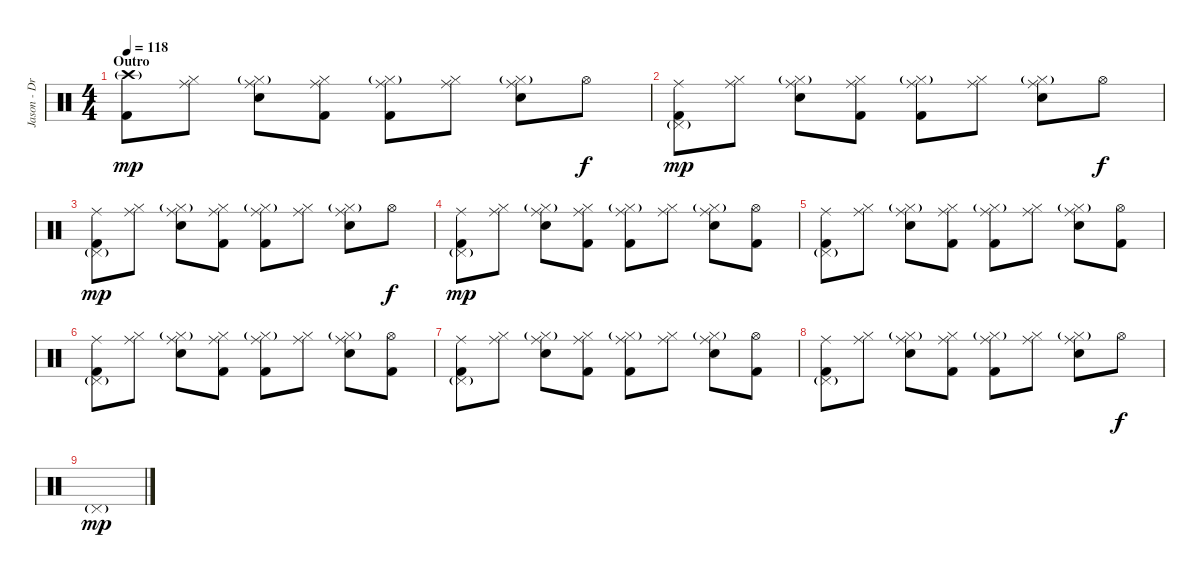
\track ("Jason - Drums" "Jason - Dr") {instrument percussion}
\staff {score}
\articulation defaults
\ts (4 4)
\section ("" "Outro")
\tempo 118
\clef neutral
\ks c
("Crash high (hit)"{g} "Kick (hit) 2").8{dy mp} ("Ride (middle)" "Hi-Hat (closed)").8 ("Ride (middle)" "Hi-Hat (closed)"{g} "Electric Snare (hit)").8 ("Ride (middle)" "Hi-Hat (closed)" "Kick (hit) 2").8 ("Ride (middle)" "Hi-Hat (closed)"{g} "Kick (hit) 2").8 ("Ride (middle)" "Hi-Hat (closed)").8 ("Ride (middle)" "Hi-Hat (closed)"{g} "Electric Snare (hit)").8 "Hi-Hat (open)".8{dy f} |
("Ride (middle)" "Pedal Hi-Hat (hit)"{g} "Kick (hit) 2").8{dy mp} ("Ride (middle)" "Hi-Hat (closed)").8 ("Ride (middle)" "Hi-Hat (closed)"{g} "Electric Snare (hit)").8 ("Ride (middle)" "Hi-Hat (closed)" "Kick (hit) 2").8 ("Ride (middle)" "Hi-Hat (closed)"{g} "Kick (hit) 2").8 ("Ride (middle)" "Hi-Hat (closed)").8 ("Ride (middle)" "Hi-Hat (closed)"{g} "Electric Snare (hit)").8 "Hi-Hat (open)".8{dy f} |
("Ride (middle)" "Pedal Hi-Hat (hit)"{g} "Kick (hit) 2").8{dy mp} ("Ride (middle)" "Hi-Hat (closed)").8 ("Ride (middle)" "Hi-Hat (closed)"{g} "Electric Snare (hit)").8 ("Ride (middle)" "Hi-Hat (closed)" "Kick (hit) 2").8 ("Ride (middle)" "Hi-Hat (closed)"{g} "Kick (hit) 2").8 ("Ride (middle)" "Hi-Hat (closed)").8 ("Ride (middle)" "Hi-Hat (closed)"{g} "Electric Snare (hit)").8 "Hi-Hat (open)".8{dy f} |
("Ride (middle)" "Pedal Hi-Hat (hit)"{g} "Kick (hit) 2").8{dy mp} ("Ride (middle)" "Hi-Hat (closed)").8 ("Ride (middle)" "Hi-Hat (closed)"{g} "Electric Snare (hit)").8 ("Ride (middle)" "Hi-Hat (closed)" "Kick (hit) 2").8 ("Ride (middle)" "Hi-Hat (closed)"{g} "Kick (hit) 2").8 ("Ride (middle)" "Hi-Hat (closed)").8 ("Ride (middle)" "Hi-Hat (closed)"{g} "Electric Snare (hit)").8 ("Hi-Hat (open)" "Kick (hit) 2").8 |
("Ride (middle)" "Pedal Hi-Hat (hit)"{g} "Kick (hit) 2").8 ("Ride (middle)" "Hi-Hat (closed)").8 ("Ride (middle)" "Hi-Hat (closed)"{g} "Electric Snare (hit)").8 ("Ride (middle)" "Hi-Hat (closed)" "Kick (hit) 2").8 ("Ride (middle)" "Hi-Hat (closed)"{g} "Kick (hit) 2").8 ("Ride (middle)" "Hi-Hat (closed)").8 ("Ride (middle)" "Hi-Hat (closed)"{g} "Electric Snare (hit)").8 ("Hi-Hat (open)" "Kick (hit) 2").8 |
("Ride (middle)" "Pedal Hi-Hat (hit)"{g} "Kick (hit) 2").8 ("Ride (middle)" "Hi-Hat (closed)").8 ("Ride (middle)" "Hi-Hat (closed)"{g} "Electric Snare (hit)").8 ("Ride (middle)" "Hi-Hat (closed)" "Kick (hit) 2").8 ("Ride (middle)" "Hi-Hat (closed)"{g} "Kick (hit) 2").8 ("Ride (middle)" "Hi-Hat (closed)").8 ("Ride (middle)" "Hi-Hat (closed)"{g} "Electric Snare (hit)").8 ("Hi-Hat (open)" "Kick (hit) 2").8 |
("Ride (middle)" "Pedal Hi-Hat (hit)"{g} "Kick (hit) 2").8 ("Ride (middle)" "Hi-Hat (closed)").8 ("Ride (middle)" "Hi-Hat (closed)"{g} "Electric Snare (hit)").8 ("Ride (middle)" "Hi-Hat (closed)" "Kick (hit) 2").8 ("Ride (middle)" "Hi-Hat (closed)"{g} "Kick (hit) 2").8 ("Ride (middle)" "Hi-Hat (closed)").8 ("Ride (middle)" "Hi-Hat (closed)"{g} "Electric Snare (hit)").8 ("Hi-Hat (open)" "Kick (hit) 2").8 |
("Ride (middle)" "Pedal Hi-Hat (hit)"{g} "Kick (hit) 2").8 ("Ride (middle)" "Hi-Hat (closed)").8 ("Ride (middle)" "Hi-Hat (closed)"{g} "Electric Snare (hit)").8 ("Ride (middle)" "Hi-Hat (closed)" "Kick (hit) 2").8 ("Ride (middle)" "Hi-Hat (closed)"{g} "Kick (hit) 2").8 ("Ride (middle)" "Hi-Hat (closed)").8 ("Ride (middle)" "Hi-Hat (closed)"{g} "Electric Snare (hit)").8 "Hi-Hat (open)".8{dy f} |
"Pedal Hi-Hat (hit)"{g}.1{dy mp}
